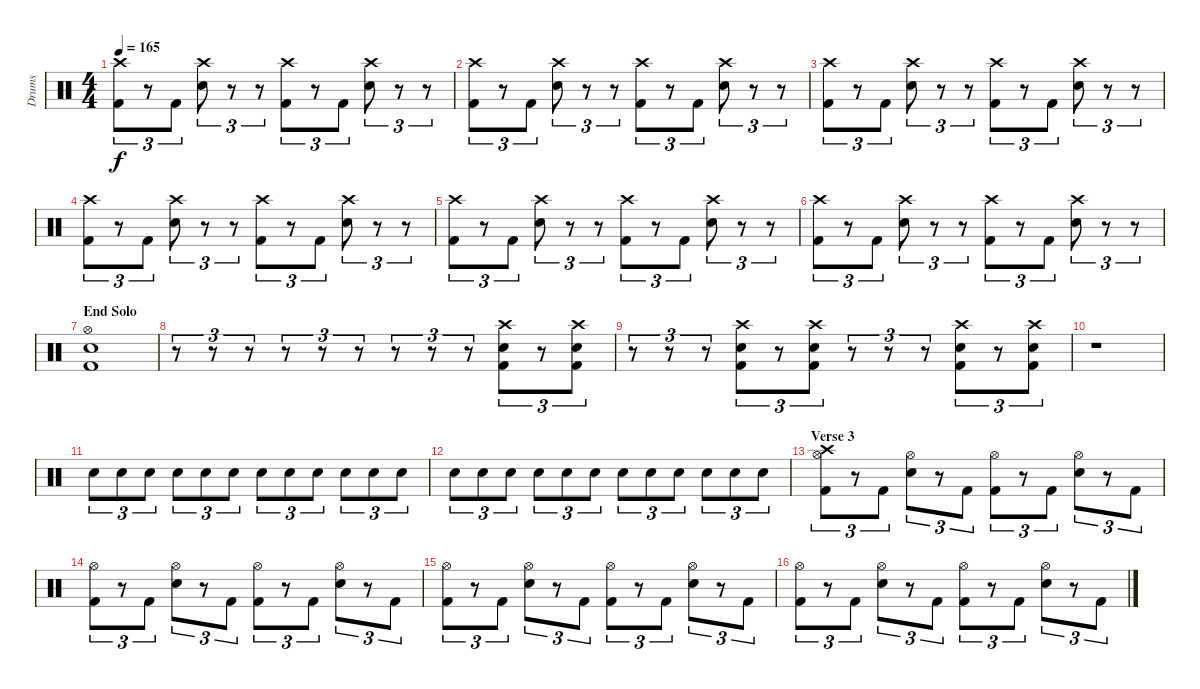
\track ("Drums" "Drums") {instrument percussion}
\staff {score}
\articulation defaults
\ts (4 4)
\tempo 165
\clef neutral
\ks c
("Crash high (hit)" "Kick (hit) 2").8{tu (3 2) dy f} r.8{tu (3 2)} "Kick (hit) 2".8{tu (3 2)} ("Crash high (hit)" "Snare (hit) 2").8{tu (3 2)} r.8{tu (3 2)} r.8{tu (3 2)} ("Crash high (hit)" "Kick (hit) 2").8{tu (3 2)} r.8{tu (3 2)} "Kick (hit) 2".8{tu (3 2)} ("Crash high (hit)" "Snare (hit) 2").8{tu (3 2)} r.8{tu (3 2)} r.8{tu (3 2)} |
("Crash high (hit)" "Kick (hit) 2").8{tu (3 2)} r.8{tu (3 2)} "Kick (hit) 2".8{tu (3 2)} ("Crash high (hit)" "Snare (hit) 2").8{tu (3 2)} r.8{tu (3 2)} r.8{tu (3 2)} ("Crash high (hit)" "Kick (hit) 2").8{tu (3 2)} r.8{tu (3 2)} "Kick (hit) 2".8{tu (3 2)} ("Crash high (hit)" "Snare (hit) 2").8{tu (3 2)} r.8{tu (3 2)} r.8{tu (3 2)} |
("Crash high (hit)" "Kick (hit) 2").8{tu (3 2)} r.8{tu (3 2)} "Kick (hit) 2".8{tu (3 2)} ("Crash high (hit)" "Snare (hit) 2").8{tu (3 2)} r.8{tu (3 2)} r.8{tu (3 2)} ("Crash high (hit)" "Kick (hit) 2").8{tu (3 2)} r.8{tu (3 2)} "Kick (hit) 2".8{tu (3 2)} ("Crash high (hit)" "Snare (hit) 2").8{tu (3 2)} r.8{tu (3 2)} r.8{tu (3 2)} |
("Crash high (hit)" "Kick (hit) 2").8{tu (3 2)} r.8{tu (3 2)} "Kick (hit) 2".8{tu (3 2)} ("Crash high (hit)" "Snare (hit) 2").8{tu (3 2)} r.8{tu (3 2)} r.8{tu (3 2)} ("Crash high (hit)" "Kick (hit) 2").8{tu (3 2)} r.8{tu (3 2)} "Kick (hit) 2".8{tu (3 2)} ("Crash high (hit)" "Snare (hit) 2").8{tu (3 2)} r.8{tu (3 2)} r.8{tu (3 2)} |
("Crash high (hit)" "Kick (hit) 2").8{tu (3 2)} r.8{tu (3 2)} "Kick (hit) 2".8{tu (3 2)} ("Crash high (hit)" "Snare (hit) 2").8{tu (3 2)} r.8{tu (3 2)} r.8{tu (3 2)} ("Crash high (hit)" "Kick (hit) 2").8{tu (3 2)} r.8{tu (3 2)} "Kick (hit) 2".8{tu (3 2)} ("Crash high (hit)" "Snare (hit) 2").8{tu (3 2)} r.8{tu (3 2)} r.8{tu (3 2)} |
("Crash high (hit)" "Kick (hit) 2").8{tu (3 2)} r.8{tu (3 2)} "Kick (hit) 2".8{tu (3 2)} ("Crash high (hit)" "Snare (hit) 2").8{tu (3 2)} r.8{tu (3 2)} r.8{tu (3 2)} ("Crash high (hit)" "Kick (hit) 2").8{tu (3 2)} r.8{tu (3 2)} "Kick (hit) 2".8{tu (3 2)} ("Crash high (hit)" "Snare (hit) 2").8{tu (3 2)} r.8{tu (3 2)} r.8{tu (3 2)} |
\section ("" "End Solo")
("Hi-Hat (open)" "Snare (hit) 2" "Kick (hit) 2").1 |
r.8{tu (3 2)} r.8{tu (3 2)} r.8{tu (3 2)} r.8{tu (3 2)} r.8{tu (3 2)} r.8{tu (3 2)} r.8{tu (3 2)} r.8{tu (3 2)} r.8{tu (3 2)} ("Crash high (hit)" "Snare (hit) 2" "Kick (hit) 2").8{tu (3 2)} r.8{tu (3 2)} ("Crash high (hit)" "Snare (hit) 2" "Kick (hit) 2").8{tu (3 2)} |
r.8{tu (3 2)} r.8{tu (3 2)} r.8{tu (3 2)} ("Crash high (hit)" "Snare (hit) 2" "Kick (hit) 2").8{tu (3 2)} r.8{tu (3 2)} ("Crash high (hit)" "Snare (hit) 2" "Kick (hit) 2").8{tu (3 2)} r.8{tu (3 2)} r.8{tu (3 2)} r.8{tu (3 2)} ("Crash high (hit)" "Snare (hit) 2" "Kick (hit) 2").8{tu (3 2)} r.8{tu (3 2)} ("Crash high (hit)" "Snare (hit) 2" "Kick (hit) 2").8{tu (3 2)} |
r.1 |
"Snare (hit) 2".8{tu (3 2)} "Snare (hit) 2".8{tu (3 2)} "Snare (hit) 2".8{tu (3 2)} "Snare (hit) 2".8{tu (3 2)} "Snare (hit) 2".8{tu (3 2)} "Snare (hit) 2".8{tu (3 2)} "Snare (hit) 2".8{tu (3 2)} "Snare (hit) 2".8{tu (3 2)} "Snare (hit) 2".8{tu (3 2)} "Snare (hit) 2".8{tu (3 2)} "Snare (hit) 2".8{tu (3 2)} "Snare (hit) 2".8{tu (3 2)} |
"Snare (hit) 2".8{tu (3 2)} "Snare (hit) 2".8{tu (3 2)} "Snare (hit) 2".8{tu (3 2)} "Snare (hit) 2".8{tu (3 2)} "Snare (hit) 2".8{tu (3 2)} "Snare (hit) 2".8{tu (3 2)} "Snare (hit) 2".8{tu (3 2)} "Snare (hit) 2".8{tu (3 2)} "Snare (hit) 2".8{tu (3 2)} "Snare (hit) 2".8{tu (3 2)} "Snare (hit) 2".8{tu (3 2)} "Snare (hit) 2".8{tu (3 2)} |
\section ("" "Verse 3")
("Hi-Hat (open)" "Crash high (hit)" "Kick (hit) 2").8{tu (3 2)} r.8{tu (3 2)} "Kick (hit) 2".8{tu (3 2)} ("Hi-Hat (open)" "Snare (hit) 2").8{tu (3 2)} r.8{tu (3 2)} "Kick (hit) 2".8{tu (3 2)} ("Hi-Hat (open)" "Kick (hit) 2").8{tu (3 2)} r.8{tu (3 2)} "Kick (hit) 2".8{tu (3 2)} ("Hi-Hat (open)" "Snare (hit) 2").8{tu (3 2)} r.8{tu (3 2)} "Kick (hit) 2".8{tu (3 2)} |
("Hi-Hat (open)" "Kick (hit) 2").8{tu (3 2)} r.8{tu (3 2)} "Kick (hit) 2".8{tu (3 2)} ("Hi-Hat (open)" "Snare (hit) 2").8{tu (3 2)} r.8{tu (3 2)} "Kick (hit) 2".8{tu (3 2)} ("Hi-Hat (open)" "Kick (hit) 2").8{tu (3 2)} r.8{tu (3 2)} "Kick (hit) 2".8{tu (3 2)} ("Hi-Hat (open)" "Snare (hit) 2").8{tu (3 2)} r.8{tu (3 2)} "Kick (hit) 2".8{tu (3 2)} |
("Hi-Hat (open)" "Kick (hit) 2").8{tu (3 2)} r.8{tu (3 2)} "Kick (hit) 2".8{tu (3 2)} ("Hi-Hat (open)" "Snare (hit) 2").8{tu (3 2)} r.8{tu (3 2)} "Kick (hit) 2".8{tu (3 2)} ("Hi-Hat (open)" "Kick (hit) 2").8{tu (3 2)} r.8{tu (3 2)} "Kick (hit) 2".8{tu (3 2)} ("Hi-Hat (open)" "Snare (hit) 2").8{tu (3 2)} r.8{tu (3 2)} "Kick (hit) 2".8{tu (3 2)} |
("Hi-Hat (open)" "Kick (hit) 2").8{tu (3 2)} r.8{tu (3 2)} "Kick (hit) 2".8{tu (3 2)} ("Hi-Hat (open)" "Snare (hit) 2").8{tu (3 2)} r.8{tu (3 2)} "Kick (hit) 2".8{tu (3 2)} ("Hi-Hat (open)" "Kick (hit) 2").8{tu (3 2)} r.8{tu (3 2)} "Kick (hit) 2".8{tu (3 2)} ("Hi-Hat (open)" "Snare (hit) 2").8{tu (3 2)} r.8{tu (3 2)} "Kick (hit) 2".8{tu (3 2)}
